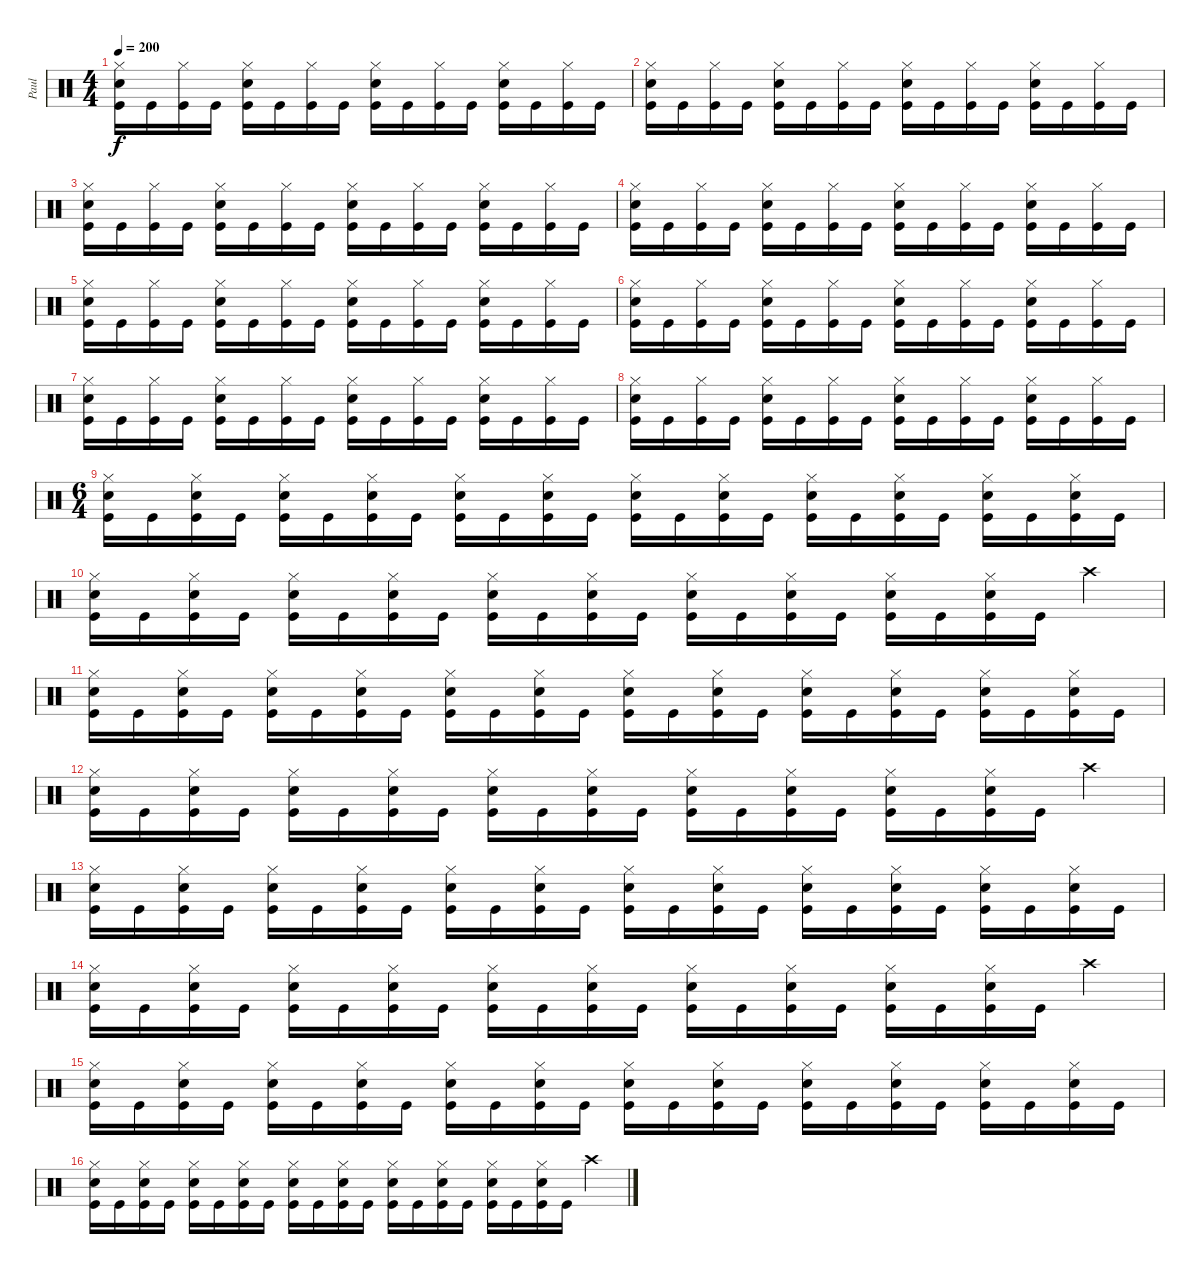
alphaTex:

\track ("Paul" "Paul") {instrument percussion}
\staff {score}
\articulation defaults
\ts (4 4)
\tempo 200
\clef neutral
\ks c
("Kick (hit)" "Snare (hit) 2" "Hi-Hat (closed)").16{dy f} "Kick (hit)".16 ("Kick (hit)" "Hi-Hat (closed)").16 "Kick (hit)".16 ("Kick (hit)" "Snare (hit) 2" "Hi-Hat (closed)").16 "Kick (hit)".16 ("Kick (hit)" "Hi-Hat (closed)").16 "Kick (hit)".16 ("Kick (hit)" "Snare (hit) 2" "Hi-Hat (closed)").16 "Kick (hit)".16 ("Kick (hit)" "Hi-Hat (closed)").16 "Kick (hit)".16 ("Kick (hit)" "Snare (hit) 2" "Hi-Hat (closed)").16 "Kick (hit)".16 ("Kick (hit)" "Hi-Hat (closed)").16 "Kick (hit)".16 |
("Kick (hit)" "Snare (hit) 2" "Hi-Hat (closed)").16 "Kick (hit)".16 ("Kick (hit)" "Hi-Hat (closed)").16 "Kick (hit)".16 ("Kick (hit)" "Snare (hit) 2" "Hi-Hat (closed)").16 "Kick (hit)".16 ("Kick (hit)" "Hi-Hat (closed)").16 "Kick (hit)".16 ("Kick (hit)" "Snare (hit) 2" "Hi-Hat (closed)").16 "Kick (hit)".16 ("Kick (hit)" "Hi-Hat (closed)").16 "Kick (hit)".16 ("Kick (hit)" "Snare (hit) 2" "Hi-Hat (closed)").16 "Kick (hit)".16 ("Kick (hit)" "Hi-Hat (closed)").16 "Kick (hit)".16 |
("Kick (hit)" "Snare (hit) 2" "Hi-Hat (closed)").16 "Kick (hit)".16 ("Kick (hit)" "Hi-Hat (closed)").16 "Kick (hit)".16 ("Kick (hit)" "Snare (hit) 2" "Hi-Hat (closed)").16 "Kick (hit)".16 ("Kick (hit)" "Hi-Hat (closed)").16 "Kick (hit)".16 ("Kick (hit)" "Snare (hit) 2" "Hi-Hat (closed)").16 "Kick (hit)".16 ("Kick (hit)" "Hi-Hat (closed)").16 "Kick (hit)".16 ("Kick (hit)" "Snare (hit) 2" "Hi-Hat (closed)").16 "Kick (hit)".16 ("Kick (hit)" "Hi-Hat (closed)").16 "Kick (hit)".16 |
("Kick (hit)" "Snare (hit) 2" "Hi-Hat (closed)").16 "Kick (hit)".16 ("Kick (hit)" "Hi-Hat (closed)").16 "Kick (hit)".16 ("Kick (hit)" "Snare (hit) 2" "Hi-Hat (closed)").16 "Kick (hit)".16 ("Kick (hit)" "Hi-Hat (closed)").16 "Kick (hit)".16 ("Kick (hit)" "Snare (hit) 2" "Hi-Hat (closed)").16 "Kick (hit)".16 ("Kick (hit)" "Hi-Hat (closed)").16 "Kick (hit)".16 ("Kick (hit)" "Snare (hit) 2" "Hi-Hat (closed)").16 "Kick (hit)".16 ("Kick (hit)" "Hi-Hat (closed)").16 "Kick (hit)".16 |
("Kick (hit)" "Snare (hit) 2" "Hi-Hat (closed)").16 "Kick (hit)".16 ("Kick (hit)" "Hi-Hat (closed)").16 "Kick (hit)".16 ("Kick (hit)" "Snare (hit) 2" "Hi-Hat (closed)").16 "Kick (hit)".16 ("Kick (hit)" "Hi-Hat (closed)").16 "Kick (hit)".16 ("Kick (hit)" "Snare (hit) 2" "Hi-Hat (closed)").16 "Kick (hit)".16 ("Kick (hit)" "Hi-Hat (closed)").16 "Kick (hit)".16 ("Kick (hit)" "Snare (hit) 2" "Hi-Hat (closed)").16 "Kick (hit)".16 ("Kick (hit)" "Hi-Hat (closed)").16 "Kick (hit)".16 |
("Kick (hit)" "Snare (hit) 2" "Hi-Hat (closed)").16 "Kick (hit)".16 ("Kick (hit)" "Hi-Hat (closed)").16 "Kick (hit)".16 ("Kick (hit)" "Snare (hit) 2" "Hi-Hat (closed)").16 "Kick (hit)".16 ("Kick (hit)" "Hi-Hat (closed)").16 "Kick (hit)".16 ("Kick (hit)" "Snare (hit) 2" "Hi-Hat (closed)").16 "Kick (hit)".16 ("Kick (hit)" "Hi-Hat (closed)").16 "Kick (hit)".16 ("Kick (hit)" "Snare (hit) 2" "Hi-Hat (closed)").16 "Kick (hit)".16 ("Kick (hit)" "Hi-Hat (closed)").16 "Kick (hit)".16 |
("Kick (hit)" "Snare (hit) 2" "Hi-Hat (closed)").16 "Kick (hit)".16 ("Kick (hit)" "Hi-Hat (closed)").16 "Kick (hit)".16 ("Kick (hit)" "Snare (hit) 2" "Hi-Hat (closed)").16 "Kick (hit)".16 ("Kick (hit)" "Hi-Hat (closed)").16 "Kick (hit)".16 ("Kick (hit)" "Snare (hit) 2" "Hi-Hat (closed)").16 "Kick (hit)".16 ("Kick (hit)" "Hi-Hat (closed)").16 "Kick (hit)".16 ("Kick (hit)" "Snare (hit) 2" "Hi-Hat (closed)").16 "Kick (hit)".16 ("Kick (hit)" "Hi-Hat (closed)").16 "Kick (hit)".16 |
("Kick (hit)" "Snare (hit) 2" "Hi-Hat (closed)").16 "Kick (hit)".16 ("Kick (hit)" "Hi-Hat (closed)").16 "Kick (hit)".16 ("Kick (hit)" "Snare (hit) 2" "Hi-Hat (closed)").16 "Kick (hit)".16 ("Kick (hit)" "Hi-Hat (closed)").16 "Kick (hit)".16 ("Kick (hit)" "Snare (hit) 2" "Hi-Hat (closed)").16 "Kick (hit)".16 ("Kick (hit)" "Hi-Hat (closed)").16 "Kick (hit)".16 ("Kick (hit)" "Snare (hit) 2" "Hi-Hat (closed)").16 "Kick (hit)".16 ("Kick (hit)" "Hi-Hat (closed)").16 "Kick (hit)".16 |
\ts (6 4)
("Kick (hit)" "Snare (hit) 2" "Hi-Hat (closed)").16 "Kick (hit)".16 ("Kick (hit)" "Snare (hit) 2" "Hi-Hat (closed)").16 "Kick (hit)".16 ("Kick (hit)" "Snare (hit) 2" "Hi-Hat (closed)").16 "Kick (hit)".16 ("Kick (hit)" "Snare (hit) 2" "Hi-Hat (closed)").16 "Kick (hit)".16 ("Kick (hit)" "Snare (hit) 2" "Hi-Hat (closed)").16 "Kick (hit)".16 ("Kick (hit)" "Snare (hit) 2" "Hi-Hat (closed)").16 "Kick (hit)".16 ("Kick (hit)" "Snare (hit) 2" "Hi-Hat (closed)").16 "Kick (hit)".16 ("Kick (hit)" "Snare (hit) 2" "Hi-Hat (closed)").16 "Kick (hit)".16 ("Kick (hit)" "Snare (hit) 2" "Hi-Hat (closed)").16 "Kick (hit)".16 ("Kick (hit)" "Snare (hit) 2" "Hi-Hat (closed)").16 "Kick (hit)".16 ("Kick (hit)" "Snare (hit) 2" "Hi-Hat (closed)").16 "Kick (hit)".16 ("Kick (hit)" "Snare (hit) 2" "Hi-Hat (closed)").16 "Kick (hit)".16 |
("Kick (hit)" "Snare (hit) 2" "Hi-Hat (closed)").16 "Kick (hit)".16 ("Kick (hit)" "Snare (hit) 2" "Hi-Hat (closed)").16 "Kick (hit)".16 ("Kick (hit)" "Snare (hit) 2" "Hi-Hat (closed)").16 "Kick (hit)".16 ("Kick (hit)" "Snare (hit) 2" "Hi-Hat (closed)").16 "Kick (hit)".16 ("Kick (hit)" "Snare (hit) 2" "Hi-Hat (closed)").16 "Kick (hit)".16 ("Kick (hit)" "Snare (hit) 2" "Hi-Hat (closed)").16 "Kick (hit)".16 ("Kick (hit)" "Snare (hit) 2" "Hi-Hat (closed)").16 "Kick (hit)".16 ("Kick (hit)" "Snare (hit) 2" "Hi-Hat (closed)").16 "Kick (hit)".16 ("Kick (hit)" "Snare (hit) 2" "Hi-Hat (closed)").16 "Kick (hit)".16 ("Kick (hit)" "Snare (hit) 2" "Hi-Hat (closed)").16 "Kick (hit)".16 "Crash high (hit)".4 |
("Kick (hit)" "Snare (hit) 2" "Hi-Hat (closed)").16 "Kick (hit)".16 ("Kick (hit)" "Snare (hit) 2" "Hi-Hat (closed)").16 "Kick (hit)".16 ("Kick (hit)" "Snare (hit) 2" "Hi-Hat (closed)").16 "Kick (hit)".16 ("Kick (hit)" "Snare (hit) 2" "Hi-Hat (closed)").16 "Kick (hit)".16 ("Kick (hit)" "Snare (hit) 2" "Hi-Hat (closed)").16 "Kick (hit)".16 ("Kick (hit)" "Snare (hit) 2" "Hi-Hat (closed)").16 "Kick (hit)".16 ("Kick (hit)" "Snare (hit) 2" "Hi-Hat (closed)").16 "Kick (hit)".16 ("Kick (hit)" "Snare (hit) 2" "Hi-Hat (closed)").16 "Kick (hit)".16 ("Kick (hit)" "Snare (hit) 2" "Hi-Hat (closed)").16 "Kick (hit)".16 ("Kick (hit)" "Snare (hit) 2" "Hi-Hat (closed)").16 "Kick (hit)".16 ("Kick (hit)" "Snare (hit) 2" "Hi-Hat (closed)").16 "Kick (hit)".16 ("Kick (hit)" "Snare (hit) 2" "Hi-Hat (closed)").16 "Kick (hit)".16 |
("Kick (hit)" "Snare (hit) 2" "Hi-Hat (closed)").16 "Kick (hit)".16 ("Kick (hit)" "Snare (hit) 2" "Hi-Hat (closed)").16 "Kick (hit)".16 ("Kick (hit)" "Snare (hit) 2" "Hi-Hat (closed)").16 "Kick (hit)".16 ("Kick (hit)" "Snare (hit) 2" "Hi-Hat (closed)").16 "Kick (hit)".16 ("Kick (hit)" "Snare (hit) 2" "Hi-Hat (closed)").16 "Kick (hit)".16 ("Kick (hit)" "Snare (hit) 2" "Hi-Hat (closed)").16 "Kick (hit)".16 ("Kick (hit)" "Snare (hit) 2" "Hi-Hat (closed)").16 "Kick (hit)".16 ("Kick (hit)" "Snare (hit) 2" "Hi-Hat (closed)").16 "Kick (hit)".16 ("Kick (hit)" "Snare (hit) 2" "Hi-Hat (closed)").16 "Kick (hit)".16 ("Kick (hit)" "Snare (hit) 2" "Hi-Hat (closed)").16 "Kick (hit)".16 "Crash high (hit)".4 |
("Kick (hit)" "Snare (hit) 2" "Hi-Hat (closed)").16 "Kick (hit)".16 ("Kick (hit)" "Snare (hit) 2" "Hi-Hat (closed)").16 "Kick (hit)".16 ("Kick (hit)" "Snare (hit) 2" "Hi-Hat (closed)").16 "Kick (hit)".16 ("Kick (hit)" "Snare (hit) 2" "Hi-Hat (closed)").16 "Kick (hit)".16 ("Kick (hit)" "Snare (hit) 2" "Hi-Hat (closed)").16 "Kick (hit)".16 ("Kick (hit)" "Snare (hit) 2" "Hi-Hat (closed)").16 "Kick (hit)".16 ("Kick (hit)" "Snare (hit) 2" "Hi-Hat (closed)").16 "Kick (hit)".16 ("Kick (hit)" "Snare (hit) 2" "Hi-Hat (closed)").16 "Kick (hit)".16 ("Kick (hit)" "Snare (hit) 2" "Hi-Hat (closed)").16 "Kick (hit)".16 ("Kick (hit)" "Snare (hit) 2" "Hi-Hat (closed)").16 "Kick (hit)".16 ("Kick (hit)" "Snare (hit) 2" "Hi-Hat (closed)").16 "Kick (hit)".16 ("Kick (hit)" "Snare (hit) 2" "Hi-Hat (closed)").16 "Kick (hit)".16 |
("Kick (hit)" "Snare (hit) 2" "Hi-Hat (closed)").16 "Kick (hit)".16 ("Kick (hit)" "Snare (hit) 2" "Hi-Hat (closed)").16 "Kick (hit)".16 ("Kick (hit)" "Snare (hit) 2" "Hi-Hat (closed)").16 "Kick (hit)".16 ("Kick (hit)" "Snare (hit) 2" "Hi-Hat (closed)").16 "Kick (hit)".16 ("Kick (hit)" "Snare (hit) 2" "Hi-Hat (closed)").16 "Kick (hit)".16 ("Kick (hit)" "Snare (hit) 2" "Hi-Hat (closed)").16 "Kick (hit)".16 ("Kick (hit)" "Snare (hit) 2" "Hi-Hat (closed)").16 "Kick (hit)".16 ("Kick (hit)" "Snare (hit) 2" "Hi-Hat (closed)").16 "Kick (hit)".16 ("Kick (hit)" "Snare (hit) 2" "Hi-Hat (closed)").16 "Kick (hit)".16 ("Kick (hit)" "Snare (hit) 2" "Hi-Hat (closed)").16 "Kick (hit)".16 "Crash high (hit)".4 |
("Kick (hit)" "Snare (hit) 2" "Hi-Hat (closed)").16 "Kick (hit)".16 ("Kick (hit)" "Snare (hit) 2" "Hi-Hat (closed)").16 "Kick (hit)".16 ("Kick (hit)" "Snare (hit) 2" "Hi-Hat (closed)").16 "Kick (hit)".16 ("Kick (hit)" "Snare (hit) 2" "Hi-Hat (closed)").16 "Kick (hit)".16 ("Kick (hit)" "Snare (hit) 2" "Hi-Hat (closed)").16 "Kick (hit)".16 ("Kick (hit)" "Snare (hit) 2" "Hi-Hat (closed)").16 "Kick (hit)".16 ("Kick (hit)" "Snare (hit) 2" "Hi-Hat (closed)").16 "Kick (hit)".16 ("Kick (hit)" "Snare (hit) 2" "Hi-Hat (closed)").16 "Kick (hit)".16 ("Kick (hit)" "Snare (hit) 2" "Hi-Hat (closed)").16 "Kick (hit)".16 ("Kick (hit)" "Snare (hit) 2" "Hi-Hat (closed)").16 "Kick (hit)".16 ("Kick (hit)" "Snare (hit) 2" "Hi-Hat (closed)").16 "Kick (hit)".16 ("Kick (hit)" "Snare (hit) 2" "Hi-Hat (closed)").16 "Kick (hit)".16 |
("Kick (hit)" "Snare (hit) 2" "Hi-Hat (closed)").16 "Kick (hit)".16 ("Kick (hit)" "Snare (hit) 2" "Hi-Hat (closed)").16 "Kick (hit)".16 ("Kick (hit)" "Snare (hit) 2" "Hi-Hat (closed)").16 "Kick (hit)".16 ("Kick (hit)" "Snare (hit) 2" "Hi-Hat (closed)").16 "Kick (hit)".16 ("Kick (hit)" "Snare (hit) 2" "Hi-Hat (closed)").16 "Kick (hit)".16 ("Kick (hit)" "Snare (hit) 2" "Hi-Hat (closed)").16 "Kick (hit)".16 ("Kick (hit)" "Snare (hit) 2" "Hi-Hat (closed)").16 "Kick (hit)".16 ("Kick (hit)" "Snare (hit) 2" "Hi-Hat (closed)").16 "Kick (hit)".16 ("Kick (hit)" "Snare (hit) 2" "Hi-Hat (closed)").16 "Kick (hit)".16 ("Kick (hit)" "Snare (hit) 2" "Hi-Hat (closed)").16 "Kick (hit)".16 "Crash high (hit)".4
